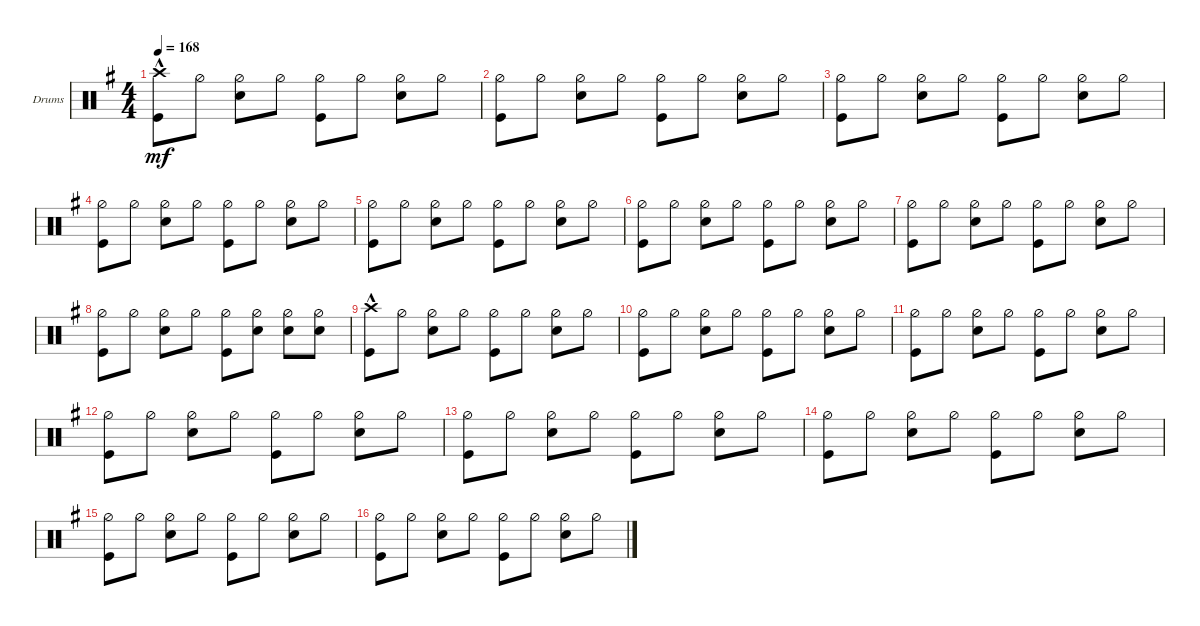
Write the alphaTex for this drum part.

\defaultSystemsLayout 4
\bracketExtendMode groupsimilarinstruments
\firstSystemTrackNameOrientation horizontal
\otherSystemsTrackNameOrientation horizontal
\track ("Drumkit" "Drums") {instrument percussion}
\staff {score}
\articulation defaults
\ts (4 4)
\tempo 168
\clef neutral
\ks eminor
("Kick (hit)" "Crash high (hit)"{hac}).8{dy mf} "Hi-Hat (half)".8 ("Hi-Hat (half)" "Snare (hit) 2").8 "Hi-Hat (half)".8 ("Hi-Hat (half)" "Kick (hit)").8 "Hi-Hat (half)".8 ("Hi-Hat (half)" "Snare (hit) 2").8 "Hi-Hat (half)".8 |
("Hi-Hat (half)" "Kick (hit)").8 "Hi-Hat (half)".8 ("Hi-Hat (half)" "Snare (hit) 2").8 "Hi-Hat (half)".8 ("Hi-Hat (half)" "Kick (hit)").8 "Hi-Hat (half)".8 ("Hi-Hat (half)" "Snare (hit) 2").8 "Hi-Hat (half)".8 |
("Hi-Hat (half)" "Kick (hit)").8 "Hi-Hat (half)".8 ("Hi-Hat (half)" "Snare (hit) 2").8 "Hi-Hat (half)".8 ("Hi-Hat (half)" "Kick (hit)").8 "Hi-Hat (half)".8 ("Hi-Hat (half)" "Snare (hit) 2").8 "Hi-Hat (half)".8 |
("Hi-Hat (half)" "Kick (hit)").8 "Hi-Hat (half)".8 ("Hi-Hat (half)" "Snare (hit) 2").8 "Hi-Hat (half)".8 ("Hi-Hat (half)" "Kick (hit)").8 "Hi-Hat (half)".8 ("Hi-Hat (half)" "Snare (hit) 2").8 "Hi-Hat (half)".8 |
("Hi-Hat (half)" "Kick (hit)").8 "Hi-Hat (half)".8 ("Hi-Hat (half)" "Snare (hit) 2").8 "Hi-Hat (half)".8 ("Hi-Hat (half)" "Kick (hit)").8 "Hi-Hat (half)".8 ("Hi-Hat (half)" "Snare (hit) 2").8 "Hi-Hat (half)".8 |
("Hi-Hat (half)" "Kick (hit)").8 "Hi-Hat (half)".8 ("Hi-Hat (half)" "Snare (hit) 2").8 "Hi-Hat (half)".8 ("Hi-Hat (half)" "Kick (hit)").8 "Hi-Hat (half)".8 ("Hi-Hat (half)" "Snare (hit) 2").8 "Hi-Hat (half)".8 |
("Hi-Hat (half)" "Kick (hit)").8 "Hi-Hat (half)".8 ("Hi-Hat (half)" "Snare (hit) 2").8 "Hi-Hat (half)".8 ("Hi-Hat (half)" "Kick (hit)").8 "Hi-Hat (half)".8 ("Hi-Hat (half)" "Snare (hit) 2").8 "Hi-Hat (half)".8 |
("Hi-Hat (half)" "Kick (hit)").8 "Hi-Hat (half)".8 ("Hi-Hat (half)" "Snare (hit) 2").8 "Hi-Hat (half)".8 ("Hi-Hat (half)" "Kick (hit)").8 ("Hi-Hat (half)" "Snare (hit) 2").8 ("Hi-Hat (half)" "Snare (hit) 2").8 ("Hi-Hat (half)" "Snare (hit) 2").8 |
("Kick (hit)" "Crash high (hit)"{hac}).8 "Hi-Hat (half)".8 ("Hi-Hat (half)" "Snare (hit) 2").8 "Hi-Hat (half)".8 ("Hi-Hat (half)" "Kick (hit)").8 "Hi-Hat (half)".8 ("Hi-Hat (half)" "Snare (hit) 2").8 "Hi-Hat (half)".8 |
("Hi-Hat (half)" "Kick (hit)").8 "Hi-Hat (half)".8 ("Hi-Hat (half)" "Snare (hit) 2").8 "Hi-Hat (half)".8 ("Hi-Hat (half)" "Kick (hit)").8 "Hi-Hat (half)".8 ("Hi-Hat (half)" "Snare (hit) 2").8 "Hi-Hat (half)".8 |
("Hi-Hat (half)" "Kick (hit)").8 "Hi-Hat (half)".8 ("Hi-Hat (half)" "Snare (hit) 2").8 "Hi-Hat (half)".8 ("Hi-Hat (half)" "Kick (hit)").8 "Hi-Hat (half)".8 ("Hi-Hat (half)" "Snare (hit) 2").8 "Hi-Hat (half)".8 |
("Hi-Hat (half)" "Kick (hit)").8 "Hi-Hat (half)".8 ("Hi-Hat (half)" "Snare (hit) 2").8 "Hi-Hat (half)".8 ("Hi-Hat (half)" "Kick (hit)").8 "Hi-Hat (half)".8 ("Hi-Hat (half)" "Snare (hit) 2").8 "Hi-Hat (half)".8 |
("Hi-Hat (half)" "Kick (hit)").8 "Hi-Hat (half)".8 ("Hi-Hat (half)" "Snare (hit) 2").8 "Hi-Hat (half)".8 ("Hi-Hat (half)" "Kick (hit)").8 "Hi-Hat (half)".8 ("Hi-Hat (half)" "Snare (hit) 2").8 "Hi-Hat (half)".8 |
("Hi-Hat (half)" "Kick (hit)").8 "Hi-Hat (half)".8 ("Hi-Hat (half)" "Snare (hit) 2").8 "Hi-Hat (half)".8 ("Hi-Hat (half)" "Kick (hit)").8 "Hi-Hat (half)".8 ("Hi-Hat (half)" "Snare (hit) 2").8 "Hi-Hat (half)".8 |
("Hi-Hat (half)" "Kick (hit)").8 "Hi-Hat (half)".8 ("Hi-Hat (half)" "Snare (hit) 2").8 "Hi-Hat (half)".8 ("Hi-Hat (half)" "Kick (hit)").8 "Hi-Hat (half)".8 ("Hi-Hat (half)" "Snare (hit) 2").8 "Hi-Hat (half)".8 |
("Hi-Hat (half)" "Kick (hit)").8 "Hi-Hat (half)".8 ("Hi-Hat (half)" "Snare (hit) 2").8 "Hi-Hat (half)".8 ("Hi-Hat (half)" "Kick (hit)").8 "Hi-Hat (half)".8 ("Hi-Hat (half)" "Snare (hit) 2").8 "Hi-Hat (half)".8
